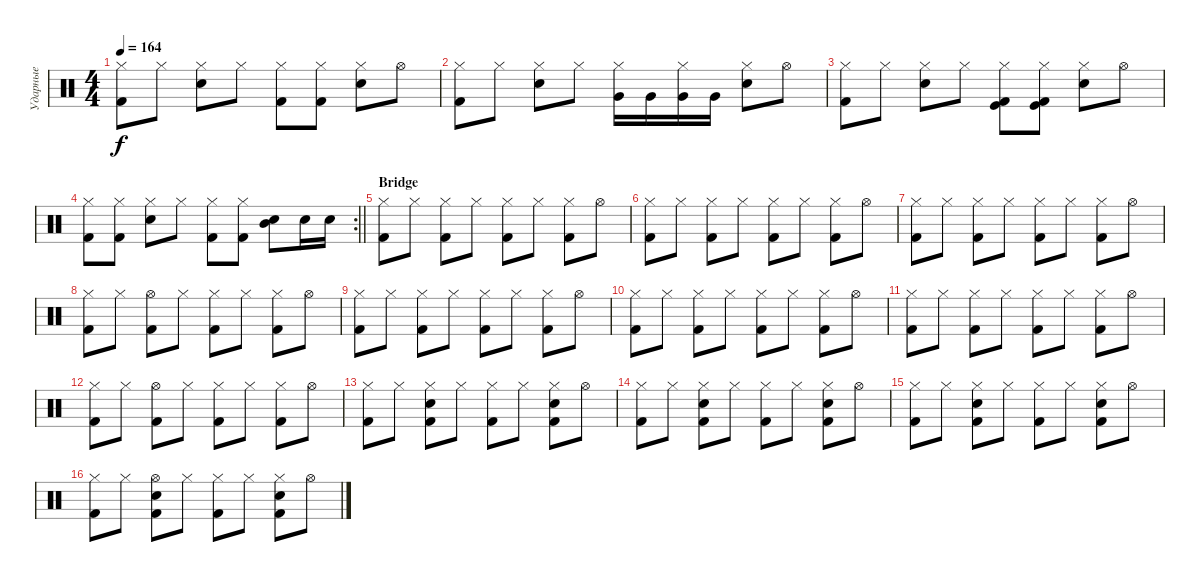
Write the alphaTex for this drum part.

\track ("Ударные" "Ударные") {instrument percussion}
\staff {score}
\articulation defaults
\ts (4 4)
\tempo 164
\clef neutral
\ks c
("Hi-Hat (closed)" "Kick (hit) 2").8{dy f} "Hi-Hat (closed)".8 ("Hi-Hat (closed)" "Snare (hit) 2").8 "Hi-Hat (closed)".8 ("Hi-Hat (closed)" "Kick (hit) 2").8 ("Hi-Hat (closed)" "Kick (hit) 2").8 ("Hi-Hat (closed)" "Snare (hit) 2").8 "Hi-Hat (open)".8 |
("Hi-Hat (closed)" "Kick (hit) 2").8 "Hi-Hat (closed)".8 ("Hi-Hat (closed)" "Snare (hit) 2").8 "Hi-Hat (closed)".8 ("Hi-Hat (closed)" "Very Low Tom (hit)").16 "Very Low Tom (hit)".16 ("Hi-Hat (closed)" "Very Low Tom (hit)").16 "Very Low Tom (hit)".16 ("Hi-Hat (closed)" "Snare (hit) 2").8 "Hi-Hat (open)".8 |
("Hi-Hat (closed)" "Kick (hit) 2").8 "Hi-Hat (closed)".8 ("Hi-Hat (closed)" "Snare (hit) 2").8 "Hi-Hat (closed)".8 ("Hi-Hat (closed)" "Kick (hit)" "Kick (hit) 2").8 ("Hi-Hat (closed)" "Kick (hit)" "Kick (hit) 2").8 ("Hi-Hat (closed)" "Snare (hit) 2").8 "Hi-Hat (open)".8 |
\rc 2
\barLineRight lightlight
("Hi-Hat (closed)" "Kick (hit) 2").8 ("Hi-Hat (closed)" "Kick (hit) 2").8 ("Hi-Hat (closed)" "Snare (hit) 2").8 "Hi-Hat (closed)".8 ("Hi-Hat (closed)" "Kick (hit) 2").8 ("Hi-Hat (closed)" "Kick (hit) 2").8 ("Snare (hit) 2" "Mid Tom (hit)").8 "Snare (hit) 2".16 "Snare (hit) 2".16 |
\section ("" "Bridge")
("Hi-Hat (closed)" "Kick (hit) 2").8 "Hi-Hat (closed)".8 ("Hi-Hat (closed)" "Kick (hit) 2").8 "Hi-Hat (closed)".8 ("Hi-Hat (closed)" "Kick (hit) 2").8 "Hi-Hat (closed)".8 ("Hi-Hat (closed)" "Kick (hit) 2").8 "Hi-Hat (open)".8 |
("Hi-Hat (closed)" "Kick (hit) 2").8 "Hi-Hat (closed)".8 ("Hi-Hat (closed)" "Kick (hit) 2").8 "Hi-Hat (closed)".8 ("Hi-Hat (closed)" "Kick (hit) 2").8 "Hi-Hat (closed)".8 ("Hi-Hat (closed)" "Kick (hit) 2").8 "Hi-Hat (open)".8 |
("Hi-Hat (closed)" "Kick (hit) 2").8 "Hi-Hat (closed)".8 ("Hi-Hat (closed)" "Kick (hit) 2").8 "Hi-Hat (closed)".8 ("Hi-Hat (closed)" "Kick (hit) 2").8 "Hi-Hat (closed)".8 ("Hi-Hat (closed)" "Kick (hit) 2").8 "Hi-Hat (open)".8 |
("Hi-Hat (closed)" "Kick (hit) 2").8 "Hi-Hat (closed)".8 ("Hi-Hat (open)" "Kick (hit) 2").8 "Hi-Hat (closed)".8 ("Hi-Hat (closed)" "Kick (hit) 2").8 "Hi-Hat (closed)".8 ("Hi-Hat (closed)" "Kick (hit) 2").8 "Hi-Hat (open)".8 |
("Hi-Hat (closed)" "Kick (hit) 2").8 "Hi-Hat (closed)".8 ("Hi-Hat (closed)" "Kick (hit) 2").8 "Hi-Hat (closed)".8 ("Hi-Hat (closed)" "Kick (hit) 2").8 "Hi-Hat (closed)".8 ("Hi-Hat (closed)" "Kick (hit) 2").8 "Hi-Hat (open)".8 |
("Hi-Hat (closed)" "Kick (hit) 2").8 "Hi-Hat (closed)".8 ("Hi-Hat (closed)" "Kick (hit) 2").8 "Hi-Hat (closed)".8 ("Hi-Hat (closed)" "Kick (hit) 2").8 "Hi-Hat (closed)".8 ("Hi-Hat (closed)" "Kick (hit) 2").8 "Hi-Hat (open)".8 |
("Hi-Hat (closed)" "Kick (hit) 2").8 "Hi-Hat (closed)".8 ("Hi-Hat (closed)" "Kick (hit) 2").8 "Hi-Hat (closed)".8 ("Hi-Hat (closed)" "Kick (hit) 2").8 "Hi-Hat (closed)".8 ("Hi-Hat (closed)" "Kick (hit) 2").8 "Hi-Hat (open)".8 |
("Hi-Hat (closed)" "Kick (hit) 2").8 "Hi-Hat (closed)".8 ("Hi-Hat (open)" "Kick (hit) 2").8 "Hi-Hat (closed)".8 ("Hi-Hat (closed)" "Kick (hit) 2").8 "Hi-Hat (closed)".8 ("Hi-Hat (closed)" "Kick (hit) 2").8 "Hi-Hat (open)".8 |
("Hi-Hat (closed)" "Kick (hit) 2").8 "Hi-Hat (closed)".8 ("Hi-Hat (closed)" "Snare (hit) 2" "Kick (hit) 2").8 "Hi-Hat (closed)".8 ("Hi-Hat (closed)" "Kick (hit) 2").8 "Hi-Hat (closed)".8 ("Hi-Hat (closed)" "Snare (hit) 2" "Kick (hit) 2").8 "Hi-Hat (open)".8 |
("Hi-Hat (closed)" "Kick (hit) 2").8 "Hi-Hat (closed)".8 ("Hi-Hat (closed)" "Snare (hit) 2" "Kick (hit) 2").8 "Hi-Hat (closed)".8 ("Hi-Hat (closed)" "Kick (hit) 2").8 "Hi-Hat (closed)".8 ("Hi-Hat (closed)" "Snare (hit) 2" "Kick (hit) 2").8 "Hi-Hat (open)".8 |
("Hi-Hat (closed)" "Kick (hit) 2").8 "Hi-Hat (closed)".8 ("Hi-Hat (closed)" "Snare (hit) 2" "Kick (hit) 2").8 "Hi-Hat (closed)".8 ("Hi-Hat (closed)" "Kick (hit) 2").8 "Hi-Hat (closed)".8 ("Hi-Hat (closed)" "Snare (hit) 2" "Kick (hit) 2").8 "Hi-Hat (open)".8 |
("Hi-Hat (closed)" "Kick (hit) 2").8 "Hi-Hat (closed)".8 ("Hi-Hat (open)" "Snare (hit) 2" "Kick (hit) 2").8 "Hi-Hat (closed)".8 ("Hi-Hat (closed)" "Kick (hit) 2").8 "Hi-Hat (closed)".8 ("Hi-Hat (closed)" "Snare (hit) 2" "Kick (hit) 2").8 "Hi-Hat (open)".8
